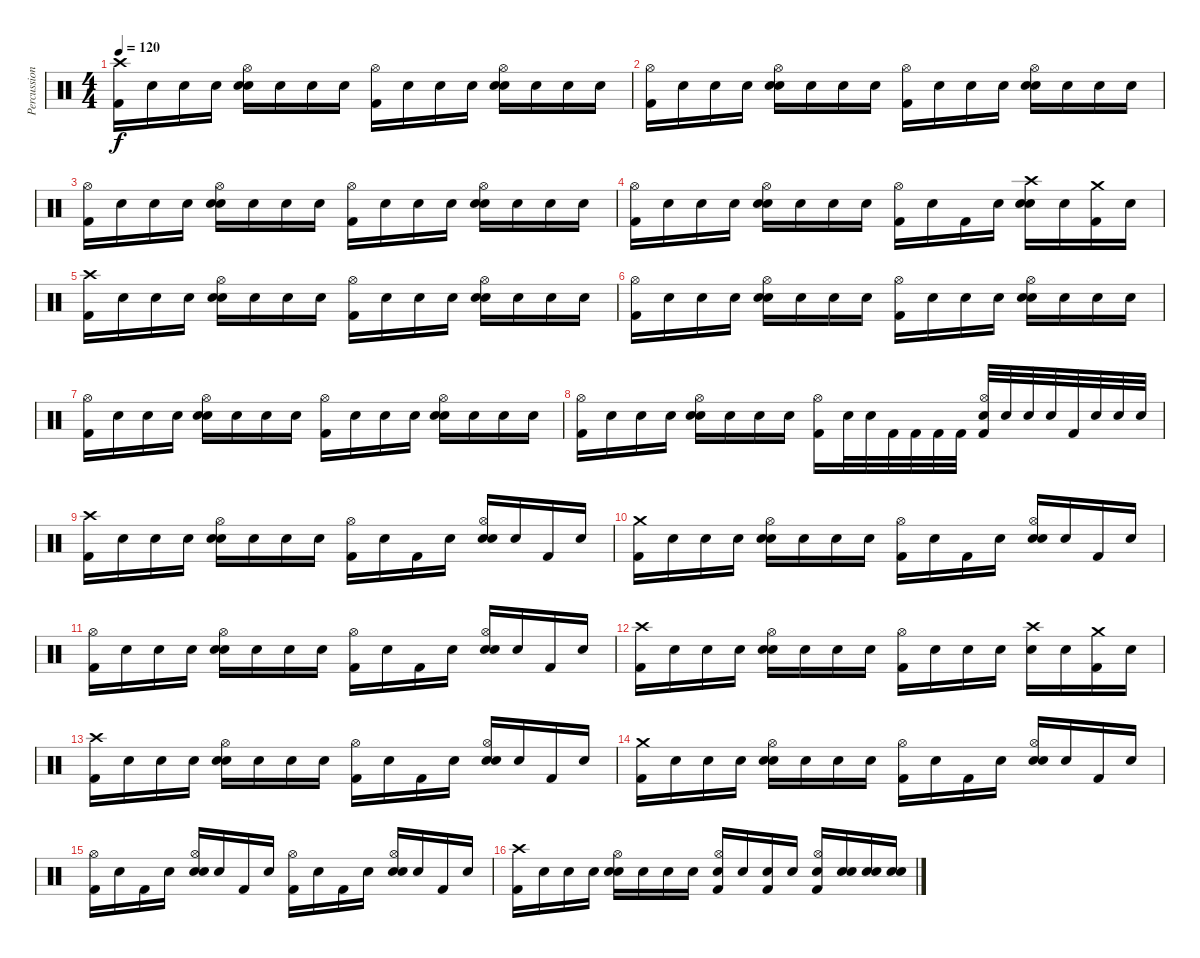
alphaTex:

\track ("Percussion" "Percussion") {instrument percussion}
\staff {score}
\articulation defaults
\ts (4 4)
\tempo 120
\clef neutral
\ks c
("Crash high (hit)" "Kick (hit) 2").16{dy f} "Snare (hit)".16 "Snare (hit)".16 "Snare (hit)".16 ("Hi-Hat (open)" "Electric Snare (hit)" "Snare (hit)").16 "Snare (hit)".16 "Snare (hit)".16 "Snare (hit)".16 ("Hi-Hat (open)" "Kick (hit) 2").16 "Snare (hit)".16 "Snare (hit)".16 "Snare (hit)".16 ("Hi-Hat (open)" "Electric Snare (hit)" "Snare (hit)").16 "Snare (hit)".16 "Snare (hit)".16 "Snare (hit)".16 |
("Hi-Hat (open)" "Kick (hit) 2").16 "Snare (hit)".16 "Snare (hit)".16 "Snare (hit)".16 ("Hi-Hat (open)" "Electric Snare (hit)" "Snare (hit)").16 "Snare (hit)".16 "Snare (hit)".16 "Snare (hit)".16 ("Hi-Hat (open)" "Kick (hit) 2").16 "Snare (hit)".16 "Snare (hit)".16 "Snare (hit)".16 ("Hi-Hat (open)" "Electric Snare (hit)" "Snare (hit)").16 "Snare (hit)".16 "Snare (hit)".16 "Snare (hit)".16 |
("Hi-Hat (open)" "Kick (hit) 2").16 "Snare (hit)".16 "Snare (hit)".16 "Snare (hit)".16 ("Hi-Hat (open)" "Electric Snare (hit)" "Snare (hit)").16 "Snare (hit)".16 "Snare (hit)".16 "Snare (hit)".16 ("Hi-Hat (open)" "Kick (hit) 2").16 "Snare (hit)".16 "Snare (hit)".16 "Snare (hit)".16 ("Hi-Hat (open)" "Electric Snare (hit)" "Snare (hit)").16 "Snare (hit)".16 "Snare (hit)".16 "Snare (hit)".16 |
("Hi-Hat (open)" "Kick (hit) 2").16 "Snare (hit)".16 "Snare (hit)".16 "Snare (hit)".16 ("Hi-Hat (open)" "Electric Snare (hit)" "Snare (hit)").16 "Snare (hit)".16 "Snare (hit)".16 "Snare (hit)".16 ("Hi-Hat (open)" "Kick (hit) 2").16 "Snare (hit)".16 "Kick (hit) 2".16 "Snare (hit)".16 ("Crash high (hit)" "Electric Snare (hit)" "Snare (hit)").16 "Snare (hit)".16 ("Crash medium (hit)" "Kick (hit) 2").16 "Snare (hit)".16 |
("Crash high (hit)" "Kick (hit) 2").16 "Snare (hit)".16 "Snare (hit)".16 "Snare (hit)".16 ("Hi-Hat (open)" "Electric Snare (hit)" "Snare (hit)").16 "Snare (hit)".16 "Snare (hit)".16 "Snare (hit)".16 ("Hi-Hat (open)" "Kick (hit) 2").16 "Snare (hit)".16 "Snare (hit)".16 "Snare (hit)".16 ("Hi-Hat (open)" "Electric Snare (hit)" "Snare (hit)").16 "Snare (hit)".16 "Snare (hit)".16 "Snare (hit)".16 |
("Hi-Hat (open)" "Kick (hit) 2").16 "Snare (hit)".16 "Snare (hit)".16 "Snare (hit)".16 ("Hi-Hat (open)" "Electric Snare (hit)" "Snare (hit)").16 "Snare (hit)".16 "Snare (hit)".16 "Snare (hit)".16 ("Hi-Hat (open)" "Kick (hit) 2").16 "Snare (hit)".16 "Snare (hit)".16 "Snare (hit)".16 ("Hi-Hat (open)" "Electric Snare (hit)" "Snare (hit)").16 "Snare (hit)".16 "Snare (hit)".16 "Snare (hit)".16 |
("Hi-Hat (open)" "Kick (hit) 2").16 "Snare (hit)".16 "Snare (hit)".16 "Snare (hit)".16 ("Hi-Hat (open)" "Electric Snare (hit)" "Snare (hit)").16 "Snare (hit)".16 "Snare (hit)".16 "Snare (hit)".16 ("Hi-Hat (open)" "Kick (hit) 2").16 "Snare (hit)".16 "Snare (hit)".16 "Snare (hit)".16 ("Hi-Hat (open)" "Electric Snare (hit)" "Snare (hit)").16 "Snare (hit)".16 "Snare (hit)".16 "Snare (hit)".16 |
("Hi-Hat (open)" "Kick (hit) 2").16 "Snare (hit)".16 "Snare (hit)".16 "Snare (hit)".16 ("Hi-Hat (open)" "Electric Snare (hit)" "Snare (hit)").16 "Snare (hit)".16 "Snare (hit)".16 "Snare (hit)".16 ("Hi-Hat (open)" "Kick (hit) 2").16 "Snare (hit)".32 "Snare (hit)".32 "Kick (hit) 2".32 "Kick (hit) 2".32 "Kick (hit) 2".32 "Kick (hit) 2".32 ("Hi-Hat (open)" "Electric Snare (hit)" "Kick (hit) 2").32 "Snare (hit)".32 "Snare (hit)".32 "Snare (hit)".32 "Kick (hit) 2".32 "Snare (hit)".32 "Snare (hit)".32 "Snare (hit)".32 |
("Crash high (hit)" "Kick (hit) 2").16 "Snare (hit)".16 "Snare (hit)".16 "Snare (hit)".16 ("Hi-Hat (open)" "Electric Snare (hit)" "Snare (hit)").16 "Snare (hit)".16 "Snare (hit)".16 "Snare (hit)".16 ("Hi-Hat (open)" "Kick (hit) 2").16 "Snare (hit)".16 "Kick (hit) 2".16 "Snare (hit)".16 ("Hi-Hat (open)" "Electric Snare (hit)" "Snare (hit)").16 "Snare (hit)".16 "Kick (hit) 2".16 "Snare (hit)".16 |
("Crash medium (hit)" "Kick (hit) 2").16 "Snare (hit)".16 "Snare (hit)".16 "Snare (hit)".16 ("Hi-Hat (open)" "Electric Snare (hit)" "Snare (hit)").16 "Snare (hit)".16 "Snare (hit)".16 "Snare (hit)".16 ("Hi-Hat (open)" "Kick (hit) 2").16 "Snare (hit)".16 "Kick (hit) 2".16 "Snare (hit)".16 ("Hi-Hat (open)" "Electric Snare (hit)" "Snare (hit)").16 "Snare (hit)".16 "Kick (hit) 2".16 "Snare (hit)".16 |
("Hi-Hat (open)" "Kick (hit) 2").16 "Snare (hit)".16 "Snare (hit)".16 "Snare (hit)".16 ("Hi-Hat (open)" "Electric Snare (hit)" "Snare (hit)").16 "Snare (hit)".16 "Snare (hit)".16 "Snare (hit)".16 ("Hi-Hat (open)" "Kick (hit) 2").16 "Snare (hit)".16 "Kick (hit) 2".16 "Snare (hit)".16 ("Hi-Hat (open)" "Electric Snare (hit)" "Snare (hit)").16 "Snare (hit)".16 "Kick (hit) 2".16 "Snare (hit)".16 |
("Crash high (hit)" "Kick (hit) 2").16 "Snare (hit)".16 "Snare (hit)".16 "Snare (hit)".16 ("Hi-Hat (open)" "Electric Snare (hit)" "Snare (hit)").16 "Snare (hit)".16 "Snare (hit)".16 "Snare (hit)".16 ("Hi-Hat (open)" "Kick (hit) 2").16 "Snare (hit)".16 "Snare (hit)".16 "Snare (hit)".16 ("Crash high (hit)" "Electric Snare (hit)").16 "Snare (hit)".16 ("Crash medium (hit)" "Kick (hit) 2").16 "Snare (hit)".16 |
("Crash high (hit)" "Kick (hit) 2").16 "Snare (hit)".16 "Snare (hit)".16 "Snare (hit)".16 ("Hi-Hat (open)" "Electric Snare (hit)" "Snare (hit)").16 "Snare (hit)".16 "Snare (hit)".16 "Snare (hit)".16 ("Hi-Hat (open)" "Kick (hit) 2").16 "Snare (hit)".16 "Kick (hit) 2".16 "Snare (hit)".16 ("Hi-Hat (open)" "Electric Snare (hit)" "Snare (hit)").16 "Snare (hit)".16 "Kick (hit) 2".16 "Snare (hit)".16 |
("Crash medium (hit)" "Kick (hit) 2").16 "Snare (hit)".16 "Snare (hit)".16 "Snare (hit)".16 ("Hi-Hat (open)" "Electric Snare (hit)" "Snare (hit)").16 "Snare (hit)".16 "Snare (hit)".16 "Snare (hit)".16 ("Hi-Hat (open)" "Kick (hit) 2").16 "Snare (hit)".16 "Kick (hit) 2".16 "Snare (hit)".16 ("Hi-Hat (open)" "Electric Snare (hit)" "Snare (hit)").16 "Snare (hit)".16 "Kick (hit) 2".16 "Snare (hit)".16 |
("Hi-Hat (open)" "Kick (hit) 2").16 "Snare (hit)".16 "Kick (hit) 2".16 "Snare (hit)".16 ("Hi-Hat (open)" "Electric Snare (hit)" "Snare (hit)").16 "Snare (hit)".16 "Kick (hit) 2".16 "Snare (hit)".16 ("Hi-Hat (open)" "Kick (hit) 2").16 "Snare (hit)".16 "Kick (hit) 2".16 "Snare (hit)".16 ("Hi-Hat (open)" "Electric Snare (hit)" "Snare (hit)").16 "Snare (hit)".16 "Kick (hit) 2".16 "Snare (hit)".16 |
("Crash high (hit)" "Kick (hit) 2").16 "Snare (hit)".16 "Snare (hit)".16 "Snare (hit)".16 ("Hi-Hat (open)" "Electric Snare (hit)" "Snare (hit)").16 "Snare (hit)".16 "Snare (hit)".16 "Snare (hit)".16 ("Hi-Hat (open)" "Electric Snare (hit)" "Kick (hit) 2").16 "Snare (hit)".16 ("Electric Snare (hit)" "Kick (hit) 2").16 "Snare (hit)".16 ("Hi-Hat (open)" "Electric Snare (hit)" "Kick (hit) 2").16 ("Electric Snare (hit)" "Snare (hit)").16 ("Electric Snare (hit)" "Snare (hit)").16 ("Electric Snare (hit)" "Snare (hit)").16
